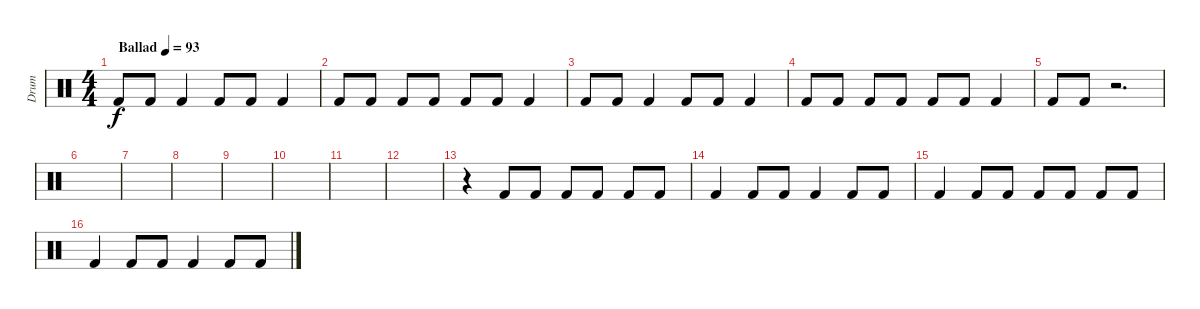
\track ("Drum" "Drum") {instrument percussion}
\staff {score}
\articulation defaults
\ts (4 4)
\tempo (93 "Ballad")
\clef neutral
\ks c "Kick (hit) 2".8{dy f volume 4} "Kick (hit) 2".8{volume 11} "Kick (hit) 2".4 "Kick (hit) 2".8 "Kick (hit) 2".8 "Kick (hit) 2".4
|
"Kick (hit) 2".8 "Kick (hit) 2".8 "Kick (hit) 2".8 "Kick (hit) 2".8 "Kick (hit) 2".8 "Kick (hit) 2".8 "Kick (hit) 2".4 |
"Kick (hit) 2".8 "Kick (hit) 2".8 "Kick (hit) 2".4 "Kick (hit) 2".8 "Kick (hit) 2".8 "Kick (hit) 2".4 |
"Kick (hit) 2".8 "Kick (hit) 2".8 "Kick (hit) 2".8 "Kick (hit) 2".8 "Kick (hit) 2".8 "Kick (hit) 2".8 "Kick (hit) 2".4 |
"Kick (hit) 2".8 "Kick (hit) 2".8 r.2{d} |
|
|
|
|
|
|
|
r.4 "Kick (hit) 2".8 "Kick (hit) 2".8 "Kick (hit) 2".8 "Kick (hit) 2".8 "Kick (hit) 2".8 "Kick (hit) 2".8 |
"Kick (hit) 2".4 "Kick (hit) 2".8 "Kick (hit) 2".8 "Kick (hit) 2".4 "Kick (hit) 2".8 "Kick (hit) 2".8 |
"Kick (hit) 2".4 "Kick (hit) 2".8 "Kick (hit) 2".8 "Kick (hit) 2".8 "Kick (hit) 2".8 "Kick (hit) 2".8 "Kick (hit) 2".8 |
"Kick (hit) 2".4 "Kick (hit) 2".8 "Kick (hit) 2".8 "Kick (hit) 2".4 "Kick (hit) 2".8 "Kick (hit) 2".8
